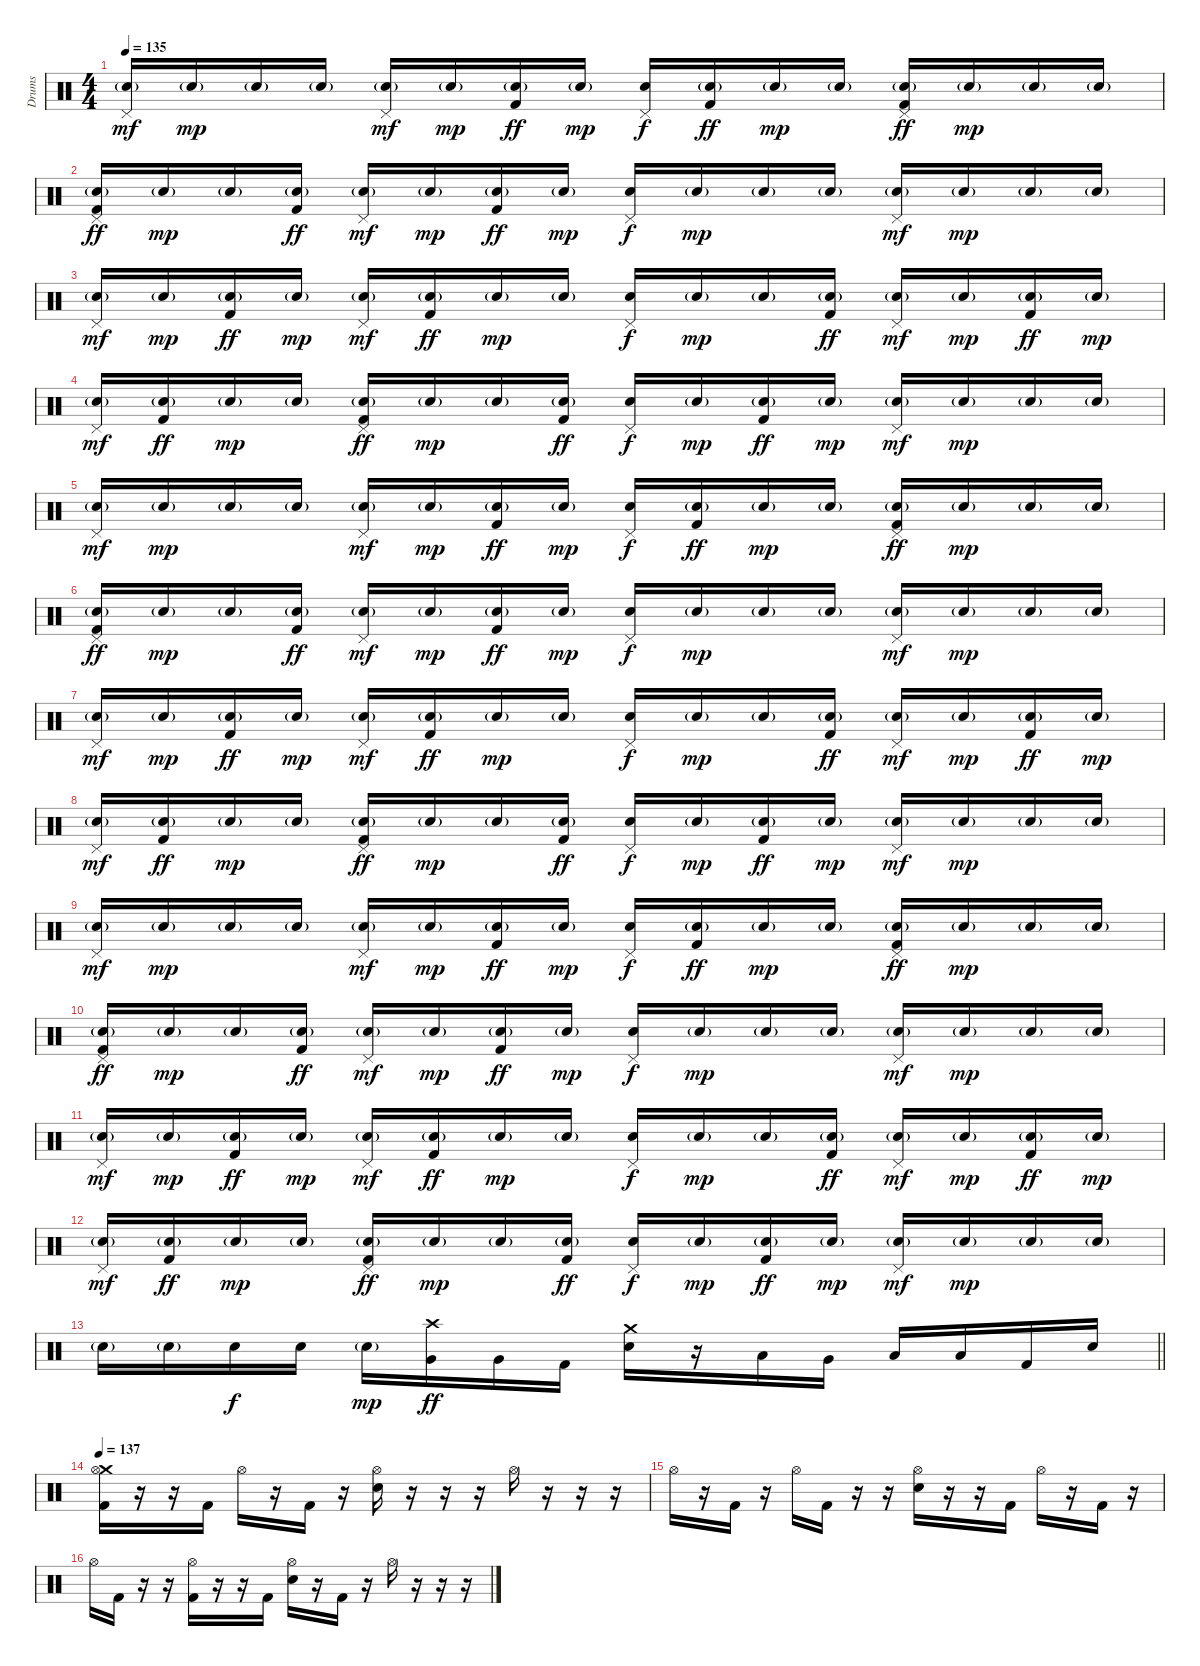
\track ("Drums" "Drums") {instrument percussion}
\staff {score}
\articulation defaults
\ts (4 4)
\tempo 135
\clef neutral
\ks c
("Pedal Hi-Hat (hit)" "Electric Snare (hit)"{g}).16{dy mf} "Electric Snare (hit)"{g}.16{dy mp} "Electric Snare (hit)"{g}.16 "Electric Snare (hit)"{g}.16 ("Pedal Hi-Hat (hit)" "Electric Snare (hit)"{g}).16{dy mf} "Electric Snare (hit)"{g}.16{dy mp} ("Electric Snare (hit)"{g} "Kick (hit) 2").16{dy ff} "Electric Snare (hit)"{g}.16{dy mp} ("Pedal Hi-Hat (hit)" "Electric Snare (hit)").16{dy f} ("Electric Snare (hit)"{g} "Kick (hit) 2").16{dy ff} "Electric Snare (hit)"{g}.16{dy mp} "Electric Snare (hit)"{g}.16 ("Pedal Hi-Hat (hit)" "Electric Snare (hit)"{g} "Kick (hit) 2").16{dy ff} "Electric Snare (hit)"{g}.16{dy mp} "Electric Snare (hit)"{g}.16 "Electric Snare (hit)"{g}.16 |
("Pedal Hi-Hat (hit)" "Electric Snare (hit)"{g} "Kick (hit) 2").16{dy ff} "Electric Snare (hit)"{g}.16{dy mp} "Electric Snare (hit)"{g}.16 ("Electric Snare (hit)"{g} "Kick (hit) 2").16{dy ff} ("Pedal Hi-Hat (hit)" "Electric Snare (hit)"{g}).16{dy mf} "Electric Snare (hit)"{g}.16{dy mp} ("Electric Snare (hit)"{g} "Kick (hit) 2").16{dy ff} "Electric Snare (hit)"{g}.16{dy mp} ("Pedal Hi-Hat (hit)" "Electric Snare (hit)").16{dy f} "Electric Snare (hit)"{g}.16{dy mp} "Electric Snare (hit)"{g}.16 "Electric Snare (hit)"{g}.16 ("Pedal Hi-Hat (hit)" "Electric Snare (hit)"{g}).16{dy mf} "Electric Snare (hit)"{g}.16{dy mp} "Electric Snare (hit)"{g}.16 "Electric Snare (hit)"{g}.16 |
("Pedal Hi-Hat (hit)" "Electric Snare (hit)"{g}).16{dy mf} "Electric Snare (hit)"{g}.16{dy mp} ("Electric Snare (hit)"{g} "Kick (hit) 2").16{dy ff} "Electric Snare (hit)"{g}.16{dy mp} ("Pedal Hi-Hat (hit)" "Electric Snare (hit)"{g}).16{dy mf} ("Electric Snare (hit)"{g} "Kick (hit) 2").16{dy ff} "Electric Snare (hit)"{g}.16{dy mp} "Electric Snare (hit)"{g}.16 ("Pedal Hi-Hat (hit)" "Electric Snare (hit)").16{dy f} "Electric Snare (hit)"{g}.16{dy mp} "Electric Snare (hit)"{g}.16 ("Electric Snare (hit)"{g} "Kick (hit) 2").16{dy ff} ("Pedal Hi-Hat (hit)" "Electric Snare (hit)"{g}).16{dy mf} "Electric Snare (hit)"{g}.16{dy mp} ("Electric Snare (hit)"{g} "Kick (hit) 2").16{dy ff} "Electric Snare (hit)"{g}.16{dy mp} |
("Pedal Hi-Hat (hit)" "Electric Snare (hit)"{g}).16{dy mf} ("Electric Snare (hit)"{g} "Kick (hit) 2").16{dy ff} "Electric Snare (hit)"{g}.16{dy mp} "Electric Snare (hit)"{g}.16 ("Pedal Hi-Hat (hit)" "Electric Snare (hit)"{g} "Kick (hit) 2").16{dy ff} "Electric Snare (hit)"{g}.16{dy mp} "Electric Snare (hit)"{g}.16 ("Electric Snare (hit)"{g} "Kick (hit) 2").16{dy ff} ("Pedal Hi-Hat (hit)" "Electric Snare (hit)").16{dy f} "Electric Snare (hit)"{g}.16{dy mp} ("Electric Snare (hit)"{g} "Kick (hit) 2").16{dy ff} "Electric Snare (hit)"{g}.16{dy mp} ("Pedal Hi-Hat (hit)" "Electric Snare (hit)"{g}).16{dy mf} "Electric Snare (hit)"{g}.16{dy mp} "Electric Snare (hit)"{g}.16 "Electric Snare (hit)"{g}.16 |
("Pedal Hi-Hat (hit)" "Electric Snare (hit)"{g}).16{dy mf} "Electric Snare (hit)"{g}.16{dy mp} "Electric Snare (hit)"{g}.16 "Electric Snare (hit)"{g}.16 ("Pedal Hi-Hat (hit)" "Electric Snare (hit)"{g}).16{dy mf} "Electric Snare (hit)"{g}.16{dy mp} ("Electric Snare (hit)"{g} "Kick (hit) 2").16{dy ff} "Electric Snare (hit)"{g}.16{dy mp} ("Pedal Hi-Hat (hit)" "Electric Snare (hit)").16{dy f} ("Electric Snare (hit)"{g} "Kick (hit) 2").16{dy ff} "Electric Snare (hit)"{g}.16{dy mp} "Electric Snare (hit)"{g}.16 ("Pedal Hi-Hat (hit)" "Electric Snare (hit)"{g} "Kick (hit) 2").16{dy ff} "Electric Snare (hit)"{g}.16{dy mp} "Electric Snare (hit)"{g}.16 "Electric Snare (hit)"{g}.16 |
("Pedal Hi-Hat (hit)" "Electric Snare (hit)"{g} "Kick (hit) 2").16{dy ff} "Electric Snare (hit)"{g}.16{dy mp} "Electric Snare (hit)"{g}.16 ("Electric Snare (hit)"{g} "Kick (hit) 2").16{dy ff} ("Pedal Hi-Hat (hit)" "Electric Snare (hit)"{g}).16{dy mf} "Electric Snare (hit)"{g}.16{dy mp} ("Electric Snare (hit)"{g} "Kick (hit) 2").16{dy ff} "Electric Snare (hit)"{g}.16{dy mp} ("Pedal Hi-Hat (hit)" "Electric Snare (hit)").16{dy f} "Electric Snare (hit)"{g}.16{dy mp} "Electric Snare (hit)"{g}.16 "Electric Snare (hit)"{g}.16 ("Pedal Hi-Hat (hit)" "Electric Snare (hit)"{g}).16{dy mf} "Electric Snare (hit)"{g}.16{dy mp} "Electric Snare (hit)"{g}.16 "Electric Snare (hit)"{g}.16 |
("Pedal Hi-Hat (hit)" "Electric Snare (hit)"{g}).16{dy mf} "Electric Snare (hit)"{g}.16{dy mp} ("Electric Snare (hit)"{g} "Kick (hit) 2").16{dy ff} "Electric Snare (hit)"{g}.16{dy mp} ("Pedal Hi-Hat (hit)" "Electric Snare (hit)"{g}).16{dy mf} ("Electric Snare (hit)"{g} "Kick (hit) 2").16{dy ff} "Electric Snare (hit)"{g}.16{dy mp} "Electric Snare (hit)"{g}.16 ("Pedal Hi-Hat (hit)" "Electric Snare (hit)").16{dy f} "Electric Snare (hit)"{g}.16{dy mp} "Electric Snare (hit)"{g}.16 ("Electric Snare (hit)"{g} "Kick (hit) 2").16{dy ff} ("Pedal Hi-Hat (hit)" "Electric Snare (hit)"{g}).16{dy mf} "Electric Snare (hit)"{g}.16{dy mp} ("Electric Snare (hit)"{g} "Kick (hit) 2").16{dy ff} "Electric Snare (hit)"{g}.16{dy mp} |
("Pedal Hi-Hat (hit)" "Electric Snare (hit)"{g}).16{dy mf} ("Electric Snare (hit)"{g} "Kick (hit) 2").16{dy ff} "Electric Snare (hit)"{g}.16{dy mp} "Electric Snare (hit)"{g}.16 ("Pedal Hi-Hat (hit)" "Electric Snare (hit)"{g} "Kick (hit) 2").16{dy ff} "Electric Snare (hit)"{g}.16{dy mp} "Electric Snare (hit)"{g}.16 ("Electric Snare (hit)"{g} "Kick (hit) 2").16{dy ff} ("Pedal Hi-Hat (hit)" "Electric Snare (hit)").16{dy f} "Electric Snare (hit)"{g}.16{dy mp} ("Electric Snare (hit)"{g} "Kick (hit) 2").16{dy ff} "Electric Snare (hit)"{g}.16{dy mp} ("Pedal Hi-Hat (hit)" "Electric Snare (hit)"{g}).16{dy mf} "Electric Snare (hit)"{g}.16{dy mp} "Electric Snare (hit)"{g}.16 "Electric Snare (hit)"{g}.16 |
("Pedal Hi-Hat (hit)" "Electric Snare (hit)"{g}).16{dy mf} "Electric Snare (hit)"{g}.16{dy mp} "Electric Snare (hit)"{g}.16 "Electric Snare (hit)"{g}.16 ("Pedal Hi-Hat (hit)" "Electric Snare (hit)"{g}).16{dy mf} "Electric Snare (hit)"{g}.16{dy mp} ("Electric Snare (hit)"{g} "Kick (hit) 2").16{dy ff} "Electric Snare (hit)"{g}.16{dy mp} ("Pedal Hi-Hat (hit)" "Electric Snare (hit)").16{dy f} ("Electric Snare (hit)"{g} "Kick (hit) 2").16{dy ff} "Electric Snare (hit)"{g}.16{dy mp} "Electric Snare (hit)"{g}.16 ("Pedal Hi-Hat (hit)" "Electric Snare (hit)"{g} "Kick (hit) 2").16{dy ff} "Electric Snare (hit)"{g}.16{dy mp} "Electric Snare (hit)"{g}.16 "Electric Snare (hit)"{g}.16 |
("Pedal Hi-Hat (hit)" "Electric Snare (hit)"{g} "Kick (hit) 2").16{dy ff} "Electric Snare (hit)"{g}.16{dy mp} "Electric Snare (hit)"{g}.16 ("Electric Snare (hit)"{g} "Kick (hit) 2").16{dy ff} ("Pedal Hi-Hat (hit)" "Electric Snare (hit)"{g}).16{dy mf} "Electric Snare (hit)"{g}.16{dy mp} ("Electric Snare (hit)"{g} "Kick (hit) 2").16{dy ff} "Electric Snare (hit)"{g}.16{dy mp} ("Pedal Hi-Hat (hit)" "Electric Snare (hit)").16{dy f} "Electric Snare (hit)"{g}.16{dy mp} "Electric Snare (hit)"{g}.16 "Electric Snare (hit)"{g}.16 ("Pedal Hi-Hat (hit)" "Electric Snare (hit)"{g}).16{dy mf} "Electric Snare (hit)"{g}.16{dy mp} "Electric Snare (hit)"{g}.16 "Electric Snare (hit)"{g}.16 |
("Pedal Hi-Hat (hit)" "Electric Snare (hit)"{g}).16{dy mf} "Electric Snare (hit)"{g}.16{dy mp} ("Electric Snare (hit)"{g} "Kick (hit) 2").16{dy ff} "Electric Snare (hit)"{g}.16{dy mp} ("Pedal Hi-Hat (hit)" "Electric Snare (hit)"{g}).16{dy mf} ("Electric Snare (hit)"{g} "Kick (hit) 2").16{dy ff} "Electric Snare (hit)"{g}.16{dy mp} "Electric Snare (hit)"{g}.16 ("Pedal Hi-Hat (hit)" "Electric Snare (hit)").16{dy f} "Electric Snare (hit)"{g}.16{dy mp} "Electric Snare (hit)"{g}.16 ("Electric Snare (hit)"{g} "Kick (hit) 2").16{dy ff} ("Pedal Hi-Hat (hit)" "Electric Snare (hit)"{g}).16{dy mf} "Electric Snare (hit)"{g}.16{dy mp} ("Electric Snare (hit)"{g} "Kick (hit) 2").16{dy ff} "Electric Snare (hit)"{g}.16{dy mp} |
("Pedal Hi-Hat (hit)" "Electric Snare (hit)"{g}).16{dy mf} ("Electric Snare (hit)"{g} "Kick (hit) 2").16{dy ff} "Electric Snare (hit)"{g}.16{dy mp} "Electric Snare (hit)"{g}.16 ("Pedal Hi-Hat (hit)" "Electric Snare (hit)"{g} "Kick (hit) 2").16{dy ff} "Electric Snare (hit)"{g}.16{dy mp} "Electric Snare (hit)"{g}.16 ("Electric Snare (hit)"{g} "Kick (hit) 2").16{dy ff} ("Pedal Hi-Hat (hit)" "Electric Snare (hit)").16{dy f} "Electric Snare (hit)"{g}.16{dy mp} ("Electric Snare (hit)"{g} "Kick (hit) 2").16{dy ff} "Electric Snare (hit)"{g}.16{dy mp} ("Pedal Hi-Hat (hit)" "Electric Snare (hit)"{g}).16{dy mf} "Electric Snare (hit)"{g}.16{dy mp} "Electric Snare (hit)"{g}.16 "Electric Snare (hit)"{g}.16 |
\barLineRight lightlight "Electric Snare (hit)"{g}.16 "Electric Snare (hit)"{g}.16 "Electric Snare (hit)".16{dy f} "Electric Snare (hit)".16 "Electric Snare (hit)"{g}.16{dy mp}
("Crash high (hit)" "Very Low Tom (hit)").16{dy ff} "Very Low Tom (hit)".16 "Kick (hit) 2".16 ("Crash medium (hit)" "Electric Snare (hit)").16 r.16 "Low Floor Tom (hit)".16 "Very Low Tom (hit)".16 "Low Tom (hit)".16 "Low Tom (hit)".16 "Kick (hit) 2".16 "Electric Snare (hit)".16 |
\section ("" "")
\tempo 137
("Crash medium (hit)" "Hi-Hat (open)" "Kick (hit) 2").16 r.16 r.16 "Kick (hit) 2".16 "Hi-Hat (open)".16 r.16 "Kick (hit) 2".16 r.16 ("Hi-Hat (open)" "Electric Snare (hit)").16 r.16 r.16 r.16 "Hi-Hat (open)".16 r.16 r.16 r.16 |
"Hi-Hat (open)".16 r.16 "Kick (hit) 2".16 r.16 "Hi-Hat (open)".16 "Kick (hit) 2".16 r.16 r.16 ("Hi-Hat (open)" "Electric Snare (hit)").16 r.16 r.16 "Kick (hit) 2".16 "Hi-Hat (open)".16 r.16 "Kick (hit) 2".16 r.16 |
"Hi-Hat (open)".16 "Kick (hit) 2".16 r.16 r.16 ("Hi-Hat (open)" "Kick (hit) 2").16 r.16 r.16 "Kick (hit) 2".16 ("Hi-Hat (open)" "Electric Snare (hit)").16 r.16 "Kick (hit) 2".16 r.16 "Hi-Hat (open)".16 r.16 r.16 r.16
